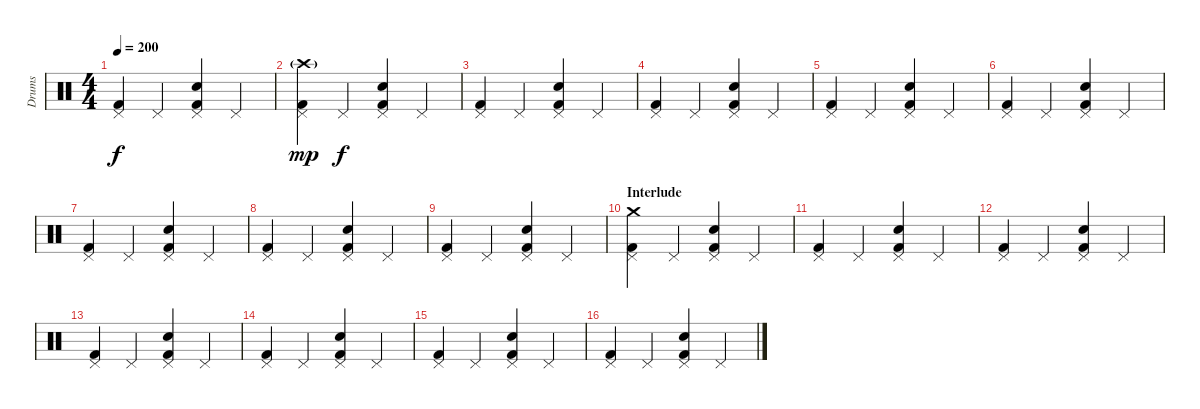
\track ("Drums" "Drums") {instrument percussion}
\staff {score}
\articulation defaults
\ts (4 4)
\tempo 200
\clef neutral
\ks c
("Pedal Hi-Hat (hit)" "Kick (hit) 2").4{dy f} "Pedal Hi-Hat (hit)".4 ("Pedal Hi-Hat (hit)" "Kick (hit) 2" "Snare (hit) 2").4 "Pedal Hi-Hat (hit)".4 |
("Pedal Hi-Hat (hit)" "Crash high (hit)"{g} "Kick (hit) 2").4{dy mp} "Pedal Hi-Hat (hit)".4{dy f} ("Pedal Hi-Hat (hit)" "Kick (hit) 2" "Snare (hit) 2").4 "Pedal Hi-Hat (hit)".4 |
("Pedal Hi-Hat (hit)" "Kick (hit) 2").4 "Pedal Hi-Hat (hit)".4 ("Pedal Hi-Hat (hit)" "Kick (hit) 2" "Snare (hit) 2").4 "Pedal Hi-Hat (hit)".4 |
("Pedal Hi-Hat (hit)" "Kick (hit) 2").4 "Pedal Hi-Hat (hit)".4 ("Pedal Hi-Hat (hit)" "Kick (hit) 2" "Snare (hit) 2").4 "Pedal Hi-Hat (hit)".4 |
("Pedal Hi-Hat (hit)" "Kick (hit) 2").4 "Pedal Hi-Hat (hit)".4 ("Pedal Hi-Hat (hit)" "Kick (hit) 2" "Snare (hit) 2").4 "Pedal Hi-Hat (hit)".4 |
("Pedal Hi-Hat (hit)" "Kick (hit) 2").4 "Pedal Hi-Hat (hit)".4 ("Pedal Hi-Hat (hit)" "Kick (hit) 2" "Snare (hit) 2").4 "Pedal Hi-Hat (hit)".4 |
("Pedal Hi-Hat (hit)" "Kick (hit) 2").4 "Pedal Hi-Hat (hit)".4 ("Pedal Hi-Hat (hit)" "Kick (hit) 2" "Snare (hit) 2").4 "Pedal Hi-Hat (hit)".4 |
("Pedal Hi-Hat (hit)" "Kick (hit) 2").4 "Pedal Hi-Hat (hit)".4 ("Pedal Hi-Hat (hit)" "Kick (hit) 2" "Snare (hit) 2").4 "Pedal Hi-Hat (hit)".4 |
("Pedal Hi-Hat (hit)" "Kick (hit) 2").4 "Pedal Hi-Hat (hit)".4 ("Pedal Hi-Hat (hit)" "Kick (hit) 2" "Snare (hit) 2").4 "Pedal Hi-Hat (hit)".4 |
\section ("" "Interlude")
("Pedal Hi-Hat (hit)" "Crash medium (hit)" "Kick (hit) 2").4 "Pedal Hi-Hat (hit)".4 ("Pedal Hi-Hat (hit)" "Kick (hit) 2" "Snare (hit) 2").4 "Pedal Hi-Hat (hit)".4 |
("Pedal Hi-Hat (hit)" "Kick (hit) 2").4 "Pedal Hi-Hat (hit)".4 ("Pedal Hi-Hat (hit)" "Kick (hit) 2" "Snare (hit) 2").4 "Pedal Hi-Hat (hit)".4 |
("Pedal Hi-Hat (hit)" "Kick (hit) 2").4 "Pedal Hi-Hat (hit)".4 ("Pedal Hi-Hat (hit)" "Kick (hit) 2" "Snare (hit) 2").4 "Pedal Hi-Hat (hit)".4 |
("Pedal Hi-Hat (hit)" "Kick (hit) 2").4 "Pedal Hi-Hat (hit)".4 ("Pedal Hi-Hat (hit)" "Kick (hit) 2" "Snare (hit) 2").4 "Pedal Hi-Hat (hit)".4 |
("Pedal Hi-Hat (hit)" "Kick (hit) 2").4 "Pedal Hi-Hat (hit)".4 ("Pedal Hi-Hat (hit)" "Kick (hit) 2" "Snare (hit) 2").4 "Pedal Hi-Hat (hit)".4 |
("Pedal Hi-Hat (hit)" "Kick (hit) 2").4 "Pedal Hi-Hat (hit)".4 ("Pedal Hi-Hat (hit)" "Kick (hit) 2" "Snare (hit) 2").4 "Pedal Hi-Hat (hit)".4 |
("Pedal Hi-Hat (hit)" "Kick (hit) 2").4 "Pedal Hi-Hat (hit)".4 ("Pedal Hi-Hat (hit)" "Kick (hit) 2" "Snare (hit) 2").4 "Pedal Hi-Hat (hit)".4
